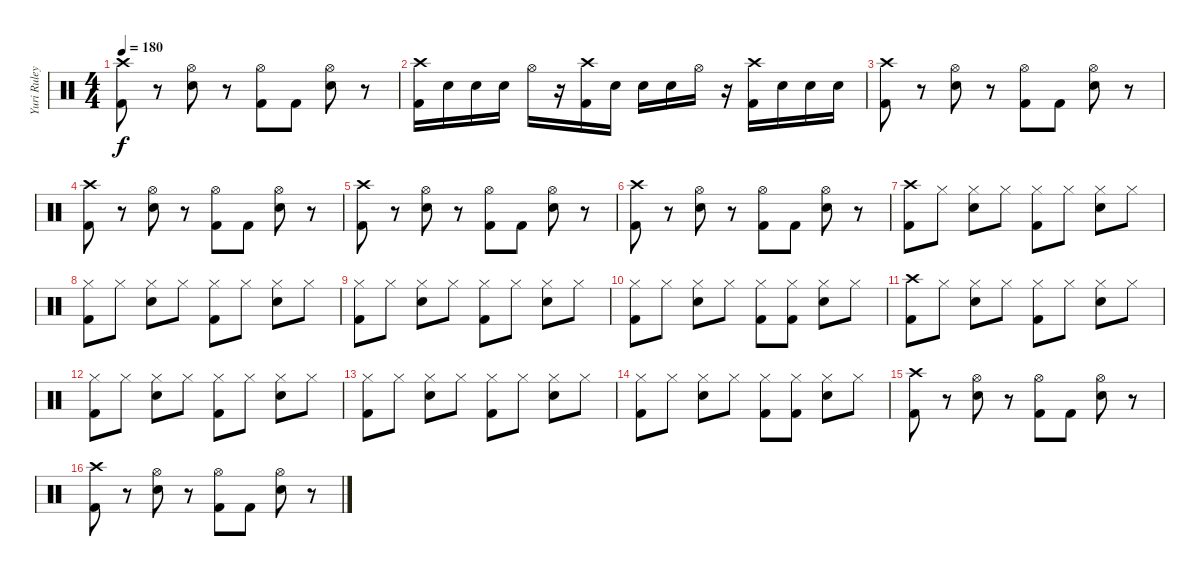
\track ("Yuri Ruley [Drums]" "Yuri Ruley") {instrument percussion}
\staff {score}
\articulation defaults
\ts (4 4)
\tempo 180
\clef neutral
\ks c
("Crash high (hit)" "Kick (hit) 2").8{dy f} r.8 ("Hi-Hat (open)" "Snare (hit) 2").8 r.8 ("Hi-Hat (open)" "Kick (hit) 2").8 "Kick (hit) 2".8 ("Hi-Hat (open)" "Snare (hit) 2").8 r.8 |
("Crash high (hit)" "Kick (hit) 2").16 "Snare (hit) 2".16 "Snare (hit) 2".16 "Snare (hit) 2".16 "Hi-Hat (open)".16 r.16 ("Crash high (hit)" "Kick (hit) 2").16 "Snare (hit) 2".16 "Snare (hit) 2".16 "Snare (hit) 2".16 "Hi-Hat (open)".16 r.16 ("Crash high (hit)" "Kick (hit) 2").16 "Snare (hit) 2".16 "Snare (hit) 2".16 "Snare (hit) 2".16 |
("Crash high (hit)" "Kick (hit) 2").8 r.8 ("Hi-Hat (open)" "Snare (hit) 2").8 r.8 ("Hi-Hat (open)" "Kick (hit) 2").8 "Kick (hit) 2".8 ("Hi-Hat (open)" "Snare (hit) 2").8 r.8 |
("Crash high (hit)" "Kick (hit) 2").8 r.8 ("Hi-Hat (open)" "Snare (hit) 2").8 r.8 ("Hi-Hat (open)" "Kick (hit) 2").8 "Kick (hit) 2".8 ("Hi-Hat (open)" "Snare (hit) 2").8 r.8 |
("Crash high (hit)" "Kick (hit) 2").8 r.8 ("Hi-Hat (open)" "Snare (hit) 2").8 r.8 ("Hi-Hat (open)" "Kick (hit) 2").8 "Kick (hit) 2".8 ("Hi-Hat (open)" "Snare (hit) 2").8 r.8 |
("Crash high (hit)" "Kick (hit) 2").8 r.8 ("Hi-Hat (open)" "Snare (hit) 2").8 r.8 ("Hi-Hat (open)" "Kick (hit) 2").8 "Kick (hit) 2".8 ("Hi-Hat (open)" "Snare (hit) 2").8 r.8 |
("Crash high (hit)" "Kick (hit) 2").8 "Hi-Hat (closed)".8 ("Hi-Hat (closed)" "Snare (hit) 2").8 "Hi-Hat (closed)".8 ("Hi-Hat (closed)" "Kick (hit) 2").8 "Hi-Hat (closed)".8 ("Hi-Hat (closed)" "Snare (hit) 2").8 "Hi-Hat (closed)".8 |
("Hi-Hat (closed)" "Kick (hit) 2").8 "Hi-Hat (closed)".8 ("Hi-Hat (closed)" "Snare (hit) 2").8 "Hi-Hat (closed)".8 ("Hi-Hat (closed)" "Kick (hit) 2").8 "Hi-Hat (closed)".8 ("Hi-Hat (closed)" "Snare (hit) 2").8 "Hi-Hat (closed)".8 |
("Hi-Hat (closed)" "Kick (hit) 2").8 "Hi-Hat (closed)".8 ("Hi-Hat (closed)" "Snare (hit) 2").8 "Hi-Hat (closed)".8 ("Hi-Hat (closed)" "Kick (hit) 2").8 "Hi-Hat (closed)".8 ("Hi-Hat (closed)" "Snare (hit) 2").8 "Hi-Hat (closed)".8 |
("Hi-Hat (closed)" "Kick (hit) 2").8 "Hi-Hat (closed)".8 ("Hi-Hat (closed)" "Snare (hit) 2").8 "Hi-Hat (closed)".8 ("Hi-Hat (closed)" "Kick (hit) 2").8 ("Hi-Hat (closed)" "Kick (hit) 2").8 ("Hi-Hat (closed)" "Snare (hit) 2").8 "Hi-Hat (closed)".8 |
("Crash high (hit)" "Kick (hit) 2").8 "Hi-Hat (closed)".8 ("Hi-Hat (closed)" "Snare (hit) 2").8 "Hi-Hat (closed)".8 ("Hi-Hat (closed)" "Kick (hit) 2").8 "Hi-Hat (closed)".8 ("Hi-Hat (closed)" "Snare (hit) 2").8 "Hi-Hat (closed)".8 |
("Hi-Hat (closed)" "Kick (hit) 2").8 "Hi-Hat (closed)".8 ("Hi-Hat (closed)" "Snare (hit) 2").8 "Hi-Hat (closed)".8 ("Hi-Hat (closed)" "Kick (hit) 2").8 "Hi-Hat (closed)".8 ("Hi-Hat (closed)" "Snare (hit) 2").8 "Hi-Hat (closed)".8 |
("Hi-Hat (closed)" "Kick (hit) 2").8 "Hi-Hat (closed)".8 ("Hi-Hat (closed)" "Snare (hit) 2").8 "Hi-Hat (closed)".8 ("Hi-Hat (closed)" "Kick (hit) 2").8 "Hi-Hat (closed)".8 ("Hi-Hat (closed)" "Snare (hit) 2").8 "Hi-Hat (closed)".8 |
("Hi-Hat (closed)" "Kick (hit) 2").8 "Hi-Hat (closed)".8 ("Hi-Hat (closed)" "Snare (hit) 2").8 "Hi-Hat (closed)".8 ("Hi-Hat (closed)" "Kick (hit) 2").8 ("Hi-Hat (closed)" "Kick (hit) 2").8 ("Hi-Hat (closed)" "Snare (hit) 2").8 "Hi-Hat (closed)".8 |
("Crash high (hit)" "Kick (hit) 2").8 r.8 ("Hi-Hat (open)" "Snare (hit) 2").8 r.8 ("Hi-Hat (open)" "Kick (hit) 2").8 "Kick (hit) 2".8 ("Hi-Hat (open)" "Snare (hit) 2").8 r.8 |
("Crash high (hit)" "Kick (hit) 2").8 r.8 ("Hi-Hat (open)" "Snare (hit) 2").8 r.8 ("Hi-Hat (open)" "Kick (hit) 2").8 "Kick (hit) 2".8 ("Hi-Hat (open)" "Snare (hit) 2").8 r.8
